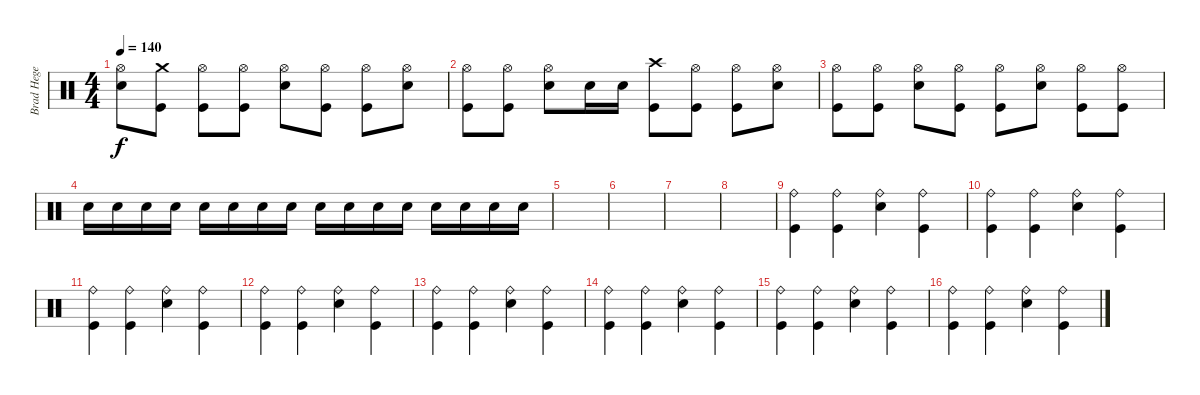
\track ("Brad Hege" "Brad Hege") {instrument percussion}
\staff {score}
\articulation defaults
\ts (4 4)
\tempo 140
\clef neutral
\ks c
("Hi-Hat (open)" "Snare (hit) 2").8{dy f} ("Crash medium (hit)" "Kick (hit)").8 ("Hi-Hat (open)" "Kick (hit)").8 ("Hi-Hat (open)" "Kick (hit)").8 ("Hi-Hat (open)" "Snare (hit) 2").8 ("Hi-Hat (open)" "Kick (hit)").8 ("Hi-Hat (open)" "Kick (hit)").8 ("Hi-Hat (open)" "Snare (hit) 2").8 |
("Hi-Hat (open)" "Kick (hit)").8 ("Hi-Hat (open)" "Kick (hit)").8 ("Hi-Hat (open)" "Snare (hit) 2").8 "Snare (hit) 2".16 "Snare (hit) 2".16 ("Crash high (hit)" "Kick (hit)").8 ("Hi-Hat (open)" "Kick (hit)").8 ("Hi-Hat (open)" "Kick (hit)").8 ("Hi-Hat (open)" "Snare (hit) 2").8 |
("Hi-Hat (open)" "Kick (hit)").8 ("Hi-Hat (open)" "Kick (hit)").8 ("Hi-Hat (open)" "Snare (hit) 2").8 ("Hi-Hat (open)" "Kick (hit)").8 ("Hi-Hat (open)" "Kick (hit)").8 ("Hi-Hat (open)" "Snare (hit) 2").8 ("Hi-Hat (open)" "Kick (hit)").8 ("Hi-Hat (open)" "Kick (hit)").8 |
"Snare (hit) 2".16 "Snare (hit) 2".16 "Snare (hit) 2".16 "Snare (hit) 2".16 "Snare (hit) 2".16 "Snare (hit) 2".16 "Snare (hit) 2".16 "Snare (hit) 2".16 "Snare (hit) 2".16 "Snare (hit) 2".16 "Snare (hit) 2".16 "Snare (hit) 2".16 "Snare (hit) 2".16 "Snare (hit) 2".16 "Snare (hit) 2".16 "Snare (hit) 2".16 |
|
|
|
|
("Ride (bell)" "Kick (hit)").4 ("Ride (bell)" "Kick (hit)").4 ("Ride (bell)" "Snare (hit) 2").4 ("Ride (bell)" "Kick (hit)").4 |
("Ride (bell)" "Kick (hit)").4 ("Ride (bell)" "Kick (hit)").4 ("Ride (bell)" "Snare (hit) 2").4 ("Ride (bell)" "Kick (hit)").4 |
("Ride (bell)" "Kick (hit)").4 ("Ride (bell)" "Kick (hit)").4 ("Ride (bell)" "Snare (hit) 2").4 ("Ride (bell)" "Kick (hit)").4 |
("Ride (bell)" "Kick (hit)").4 ("Ride (bell)" "Kick (hit)").4 ("Ride (bell)" "Snare (hit) 2").4 ("Ride (bell)" "Kick (hit)").4 |
("Ride (bell)" "Kick (hit)").4 ("Ride (bell)" "Kick (hit)").4 ("Ride (bell)" "Snare (hit) 2").4 ("Ride (bell)" "Kick (hit)").4 |
("Ride (bell)" "Kick (hit)").4 ("Ride (bell)" "Kick (hit)").4 ("Ride (bell)" "Snare (hit) 2").4 ("Ride (bell)" "Kick (hit)").4 |
("Ride (bell)" "Kick (hit)").4 ("Ride (bell)" "Kick (hit)").4 ("Ride (bell)" "Snare (hit) 2").4 ("Ride (bell)" "Kick (hit)").4 |
("Ride (bell)" "Kick (hit)").4 ("Ride (bell)" "Kick (hit)").4 ("Ride (bell)" "Snare (hit) 2").4 ("Ride (bell)" "Kick (hit)").4
